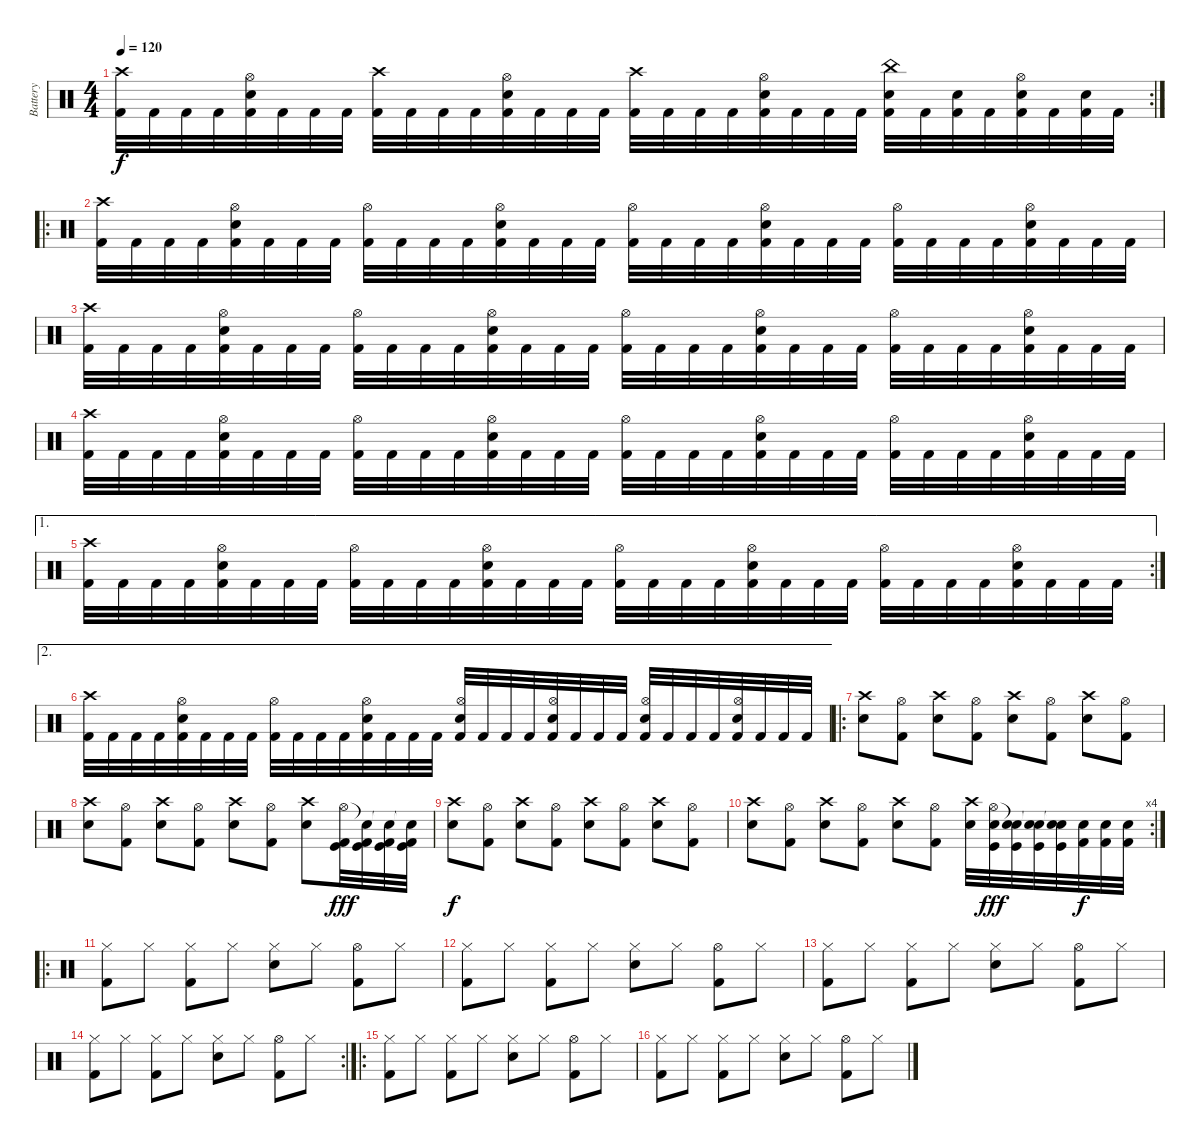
\track ("Battery" "Battery") {instrument percussion}
\staff {score}
\articulation defaults
\rc 2
\ts (4 4)
\tempo 120
\clef neutral
\ks c
("Crash high (hit)" "Kick (hit) 2").32{dy f} "Kick (hit) 2".32 "Kick (hit) 2".32 "Kick (hit) 2".32 ("Hi-Hat (open)" "Electric Snare (hit)" "Kick (hit) 2").32 "Kick (hit) 2".32 "Kick (hit) 2".32 "Kick (hit) 2".32 ("Crash high (hit)" "Kick (hit) 2").32 "Kick (hit) 2".32 "Kick (hit) 2".32 "Kick (hit) 2".32 ("Hi-Hat (open)" "Electric Snare (hit)" "Kick (hit) 2").32 "Kick (hit) 2".32 "Kick (hit) 2".32 "Kick (hit) 2".32 ("Crash high (hit)" "Kick (hit) 2").32 "Kick (hit) 2".32 "Kick (hit) 2".32 "Kick (hit) 2".32 ("Hi-Hat (open)" "Electric Snare (hit)" "Kick (hit) 2").32 "Kick (hit) 2".32 "Kick (hit) 2".32 "Kick (hit) 2".32 ("China (hit)" "Electric Snare (hit)" "Kick (hit) 2").32 "Kick (hit) 2".32 ("Electric Snare (hit)" "Kick (hit) 2").32 "Kick (hit) 2".32 ("Hi-Hat (open)" "Electric Snare (hit)" "Kick (hit) 2").32 "Kick (hit) 2".32 ("Electric Snare (hit)" "Kick (hit) 2").32 "Kick (hit) 2".32 |
\ro
("Crash high (hit)" "Kick (hit) 2").32 "Kick (hit) 2".32 "Kick (hit) 2".32 "Kick (hit) 2".32 ("Hi-Hat (open)" "Electric Snare (hit)" "Kick (hit) 2").32 "Kick (hit) 2".32 "Kick (hit) 2".32 "Kick (hit) 2".32 ("Hi-Hat (open)" "Kick (hit) 2").32 "Kick (hit) 2".32 "Kick (hit) 2".32 "Kick (hit) 2".32 ("Hi-Hat (open)" "Electric Snare (hit)" "Kick (hit) 2").32 "Kick (hit) 2".32 "Kick (hit) 2".32 "Kick (hit) 2".32 ("Hi-Hat (open)" "Kick (hit) 2").32 "Kick (hit) 2".32 "Kick (hit) 2".32 "Kick (hit) 2".32 ("Hi-Hat (open)" "Electric Snare (hit)" "Kick (hit) 2").32 "Kick (hit) 2".32 "Kick (hit) 2".32 "Kick (hit) 2".32 ("Hi-Hat (open)" "Kick (hit) 2").32 "Kick (hit) 2".32 "Kick (hit) 2".32 "Kick (hit) 2".32 ("Hi-Hat (open)" "Electric Snare (hit)" "Kick (hit) 2").32 "Kick (hit) 2".32 "Kick (hit) 2".32 "Kick (hit) 2".32 |
("Crash high (hit)" "Kick (hit) 2").32 "Kick (hit) 2".32 "Kick (hit) 2".32 "Kick (hit) 2".32 ("Hi-Hat (open)" "Electric Snare (hit)" "Kick (hit) 2").32 "Kick (hit) 2".32 "Kick (hit) 2".32 "Kick (hit) 2".32 ("Hi-Hat (open)" "Kick (hit) 2").32 "Kick (hit) 2".32 "Kick (hit) 2".32 "Kick (hit) 2".32 ("Hi-Hat (open)" "Electric Snare (hit)" "Kick (hit) 2").32 "Kick (hit) 2".32 "Kick (hit) 2".32 "Kick (hit) 2".32 ("Hi-Hat (open)" "Kick (hit) 2").32 "Kick (hit) 2".32 "Kick (hit) 2".32 "Kick (hit) 2".32 ("Hi-Hat (open)" "Electric Snare (hit)" "Kick (hit) 2").32 "Kick (hit) 2".32 "Kick (hit) 2".32 "Kick (hit) 2".32 ("Hi-Hat (open)" "Kick (hit) 2").32 "Kick (hit) 2".32 "Kick (hit) 2".32 "Kick (hit) 2".32 ("Hi-Hat (open)" "Electric Snare (hit)" "Kick (hit) 2").32 "Kick (hit) 2".32 "Kick (hit) 2".32 "Kick (hit) 2".32 |
("Crash high (hit)" "Kick (hit) 2").32 "Kick (hit) 2".32 "Kick (hit) 2".32 "Kick (hit) 2".32 ("Hi-Hat (open)" "Electric Snare (hit)" "Kick (hit) 2").32 "Kick (hit) 2".32 "Kick (hit) 2".32 "Kick (hit) 2".32 ("Hi-Hat (open)" "Kick (hit) 2").32 "Kick (hit) 2".32 "Kick (hit) 2".32 "Kick (hit) 2".32 ("Hi-Hat (open)" "Electric Snare (hit)" "Kick (hit) 2").32 "Kick (hit) 2".32 "Kick (hit) 2".32 "Kick (hit) 2".32 ("Hi-Hat (open)" "Kick (hit) 2").32 "Kick (hit) 2".32 "Kick (hit) 2".32 "Kick (hit) 2".32 ("Hi-Hat (open)" "Electric Snare (hit)" "Kick (hit) 2").32 "Kick (hit) 2".32 "Kick (hit) 2".32 "Kick (hit) 2".32 ("Hi-Hat (open)" "Kick (hit) 2").32 "Kick (hit) 2".32 "Kick (hit) 2".32 "Kick (hit) 2".32 ("Hi-Hat (open)" "Electric Snare (hit)" "Kick (hit) 2").32 "Kick (hit) 2".32 "Kick (hit) 2".32 "Kick (hit) 2".32 |
\ae 1
\rc 2
("Crash high (hit)" "Kick (hit) 2").32 "Kick (hit) 2".32 "Kick (hit) 2".32 "Kick (hit) 2".32 ("Hi-Hat (open)" "Electric Snare (hit)" "Kick (hit) 2").32 "Kick (hit) 2".32 "Kick (hit) 2".32 "Kick (hit) 2".32 ("Hi-Hat (open)" "Kick (hit) 2").32 "Kick (hit) 2".32 "Kick (hit) 2".32 "Kick (hit) 2".32 ("Hi-Hat (open)" "Electric Snare (hit)" "Kick (hit) 2").32 "Kick (hit) 2".32 "Kick (hit) 2".32 "Kick (hit) 2".32 ("Hi-Hat (open)" "Kick (hit) 2").32 "Kick (hit) 2".32 "Kick (hit) 2".32 "Kick (hit) 2".32 ("Hi-Hat (open)" "Electric Snare (hit)" "Kick (hit) 2").32 "Kick (hit) 2".32 "Kick (hit) 2".32 "Kick (hit) 2".32 ("Hi-Hat (open)" "Kick (hit) 2").32 "Kick (hit) 2".32 "Kick (hit) 2".32 "Kick (hit) 2".32 ("Hi-Hat (open)" "Electric Snare (hit)" "Kick (hit) 2").32 "Kick (hit) 2".32 "Kick (hit) 2".32 "Kick (hit) 2".32 |
\ae 2
("Crash high (hit)" "Kick (hit) 2").32 "Kick (hit) 2".32 "Kick (hit) 2".32 "Kick (hit) 2".32 ("Hi-Hat (open)" "Electric Snare (hit)" "Kick (hit) 2").32 "Kick (hit) 2".32 "Kick (hit) 2".32 "Kick (hit) 2".32 ("Hi-Hat (open)" "Kick (hit) 2").32 "Kick (hit) 2".32 "Kick (hit) 2".32 "Kick (hit) 2".32 ("Hi-Hat (open)" "Electric Snare (hit)" "Kick (hit) 2").32 "Kick (hit) 2".32 "Kick (hit) 2".32 "Kick (hit) 2".32 ("Hi-Hat (open)" "Electric Snare (hit)" "Kick (hit) 2").32 "Kick (hit) 2".32 "Kick (hit) 2".32 "Kick (hit) 2".32 ("Hi-Hat (open)" "Electric Snare (hit)" "Kick (hit) 2").32 "Kick (hit) 2".32 "Kick (hit) 2".32 "Kick (hit) 2".32 ("Hi-Hat (open)" "Electric Snare (hit)" "Kick (hit) 2").32 "Kick (hit) 2".32 "Kick (hit) 2".32 "Kick (hit) 2".32 ("Hi-Hat (open)" "Electric Snare (hit)" "Kick (hit) 2").32 "Kick (hit) 2".32 "Kick (hit) 2".32 "Kick (hit) 2".32 |
\ro
("Crash high (hit)" "Electric Snare (hit)").8{volume 12} ("Hi-Hat (open)" "Kick (hit) 2").8 ("Crash high (hit)" "Electric Snare (hit)").8 ("Hi-Hat (open)" "Kick (hit) 2").8 ("Crash high (hit)" "Electric Snare (hit)").8 ("Hi-Hat (open)" "Kick (hit) 2").8 ("Crash high (hit)" "Electric Snare (hit)").8 ("Hi-Hat (open)" "Kick (hit) 2").8 |
("Crash high (hit)" "Electric Snare (hit)").8{volume 12} ("Hi-Hat (open)" "Kick (hit) 2").8 ("Crash high (hit)" "Electric Snare (hit)").8 ("Hi-Hat (open)" "Kick (hit) 2").8 ("Crash high (hit)" "Electric Snare (hit)").8 ("Hi-Hat (open)" "Kick (hit) 2").8 ("Crash high (hit)" "Electric Snare (hit)").8 ("Kick (hit)" "Hi-Hat (open)" "Kick (hit) 2").32{dy fff} ("Kick (hit)" "Snare (hit)"{t} "Kick (hit) 2").32 ("Kick (hit)" "Snare (hit)"{t} "Kick (hit) 2").32 ("Kick (hit)" "Snare (hit)"{t} "Kick (hit) 2").32 |
("Crash high (hit)" "Electric Snare (hit)").8{dy f volume 12} ("Hi-Hat (open)" "Kick (hit) 2").8 ("Crash high (hit)" "Electric Snare (hit)").8 ("Hi-Hat (open)" "Kick (hit) 2").8 ("Crash high (hit)" "Electric Snare (hit)").8 ("Hi-Hat (open)" "Kick (hit) 2").8 ("Crash high (hit)" "Electric Snare (hit)").8 ("Hi-Hat (open)" "Kick (hit) 2").8 |
\rc 4
("Crash high (hit)" "Electric Snare (hit)").8{volume 12} ("Hi-Hat (open)" "Kick (hit) 2").8 ("Crash high (hit)" "Electric Snare (hit)").8 ("Hi-Hat (open)" "Kick (hit) 2").8 ("Crash high (hit)" "Electric Snare (hit)").8 ("Hi-Hat (open)" "Kick (hit) 2").8 ("Crash high (hit)" "Electric Snare (hit)").32 ("Kick (hit)" "Hi-Hat (open)" "Electric Snare (hit)").32{dy fff} ("Kick (hit)" "Snare (hit)"{t} "Electric Snare (hit)").32 ("Kick (hit)" "Snare (hit)"{t} "Electric Snare (hit)").32 ("Kick (hit)" "Snare (hit)"{t} "Electric Snare (hit)").32 ("Kick (hit) 2" "Electric Snare (hit)").32{dy f} ("Kick (hit) 2" "Electric Snare (hit)").32 ("Kick (hit) 2" "Electric Snare (hit)").32 |
\ro
("Hi-Hat (closed)" "Kick (hit) 2").8 "Hi-Hat (closed)".8 ("Hi-Hat (closed)" "Kick (hit) 2").8 "Hi-Hat (closed)".8 ("Hi-Hat (closed)" "Electric Snare (hit)").8 "Hi-Hat (closed)".8 ("Hi-Hat (open)" "Kick (hit) 2").8 "Hi-Hat (closed)".8 |
("Hi-Hat (closed)" "Kick (hit) 2").8 "Hi-Hat (closed)".8 ("Hi-Hat (closed)" "Kick (hit) 2").8 "Hi-Hat (closed)".8 ("Hi-Hat (closed)" "Electric Snare (hit)").8 "Hi-Hat (closed)".8 ("Hi-Hat (open)" "Kick (hit) 2").8 "Hi-Hat (closed)".8 |
("Hi-Hat (closed)" "Kick (hit) 2").8 "Hi-Hat (closed)".8 ("Hi-Hat (closed)" "Kick (hit) 2").8 "Hi-Hat (closed)".8 ("Hi-Hat (closed)" "Electric Snare (hit)").8 "Hi-Hat (closed)".8 ("Hi-Hat (open)" "Kick (hit) 2").8 "Hi-Hat (closed)".8 |
\rc 2
("Hi-Hat (closed)" "Kick (hit) 2").8 "Hi-Hat (closed)".8 ("Hi-Hat (closed)" "Kick (hit) 2").8 "Hi-Hat (closed)".8 ("Hi-Hat (closed)" "Electric Snare (hit)").8 "Hi-Hat (closed)".8 ("Hi-Hat (open)" "Kick (hit) 2").8 "Hi-Hat (closed)".8 |
\ro
("Hi-Hat (closed)" "Kick (hit) 2").8 "Hi-Hat (closed)".8 ("Hi-Hat (closed)" "Kick (hit) 2").8 "Hi-Hat (closed)".8 ("Hi-Hat (closed)" "Electric Snare (hit)").8 "Hi-Hat (closed)".8 ("Hi-Hat (open)" "Kick (hit) 2").8 "Hi-Hat (closed)".8 |
("Hi-Hat (closed)" "Kick (hit) 2").8 "Hi-Hat (closed)".8 ("Hi-Hat (closed)" "Kick (hit) 2").8 "Hi-Hat (closed)".8 ("Hi-Hat (closed)" "Electric Snare (hit)").8 "Hi-Hat (closed)".8 ("Hi-Hat (open)" "Kick (hit) 2").8 "Hi-Hat (closed)".8
